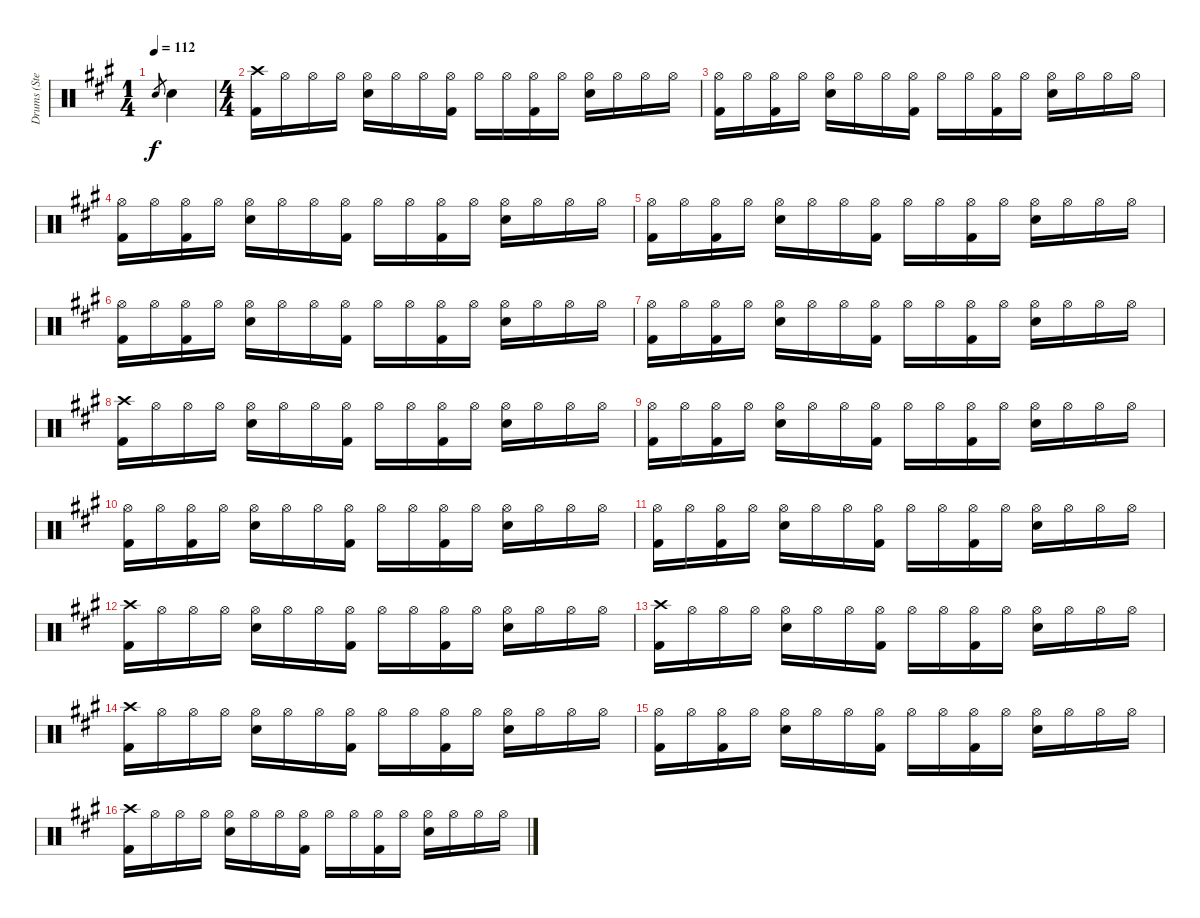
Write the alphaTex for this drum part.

\track ("Drums (Steven)" "Drums (Ste") {instrument percussion}
\staff {score}
\articulation defaults
\ts (1 4)
\tempo 112
\clef neutral
\ks f#minor "Snare (hit) 2".8{gr dy f} "Snare (hit) 2".4
|
\ts (4 4)
("Crash high (hit)" "Kick (hit) 2").16 "Hi-Hat (open)".16 "Hi-Hat (open)".16 "Hi-Hat (open)".16 ("Hi-Hat (open)" "Snare (hit) 2").16 "Hi-Hat (open)".16 "Hi-Hat (open)".16 ("Hi-Hat (open)" "Kick (hit) 2").16 "Hi-Hat (open)".16 "Hi-Hat (open)".16 ("Hi-Hat (open)" "Kick (hit) 2").16 "Hi-Hat (open)".16 ("Hi-Hat (open)" "Snare (hit) 2").16 "Hi-Hat (open)".16 "Hi-Hat (open)".16 "Hi-Hat (open)".16 |
("Hi-Hat (open)" "Kick (hit) 2").16 "Hi-Hat (open)".16 ("Hi-Hat (open)" "Kick (hit) 2").16 "Hi-Hat (open)".16 ("Hi-Hat (open)" "Snare (hit) 2").16 "Hi-Hat (open)".16 "Hi-Hat (open)".16 ("Hi-Hat (open)" "Kick (hit) 2").16 "Hi-Hat (open)".16 "Hi-Hat (open)".16 ("Hi-Hat (open)" "Kick (hit) 2").16 "Hi-Hat (open)".16 ("Hi-Hat (open)" "Snare (hit) 2").16 "Hi-Hat (open)".16 "Hi-Hat (open)".16 "Hi-Hat (open)".16 |
("Hi-Hat (open)" "Kick (hit) 2").16 "Hi-Hat (open)".16 ("Hi-Hat (open)" "Kick (hit) 2").16 "Hi-Hat (open)".16 ("Hi-Hat (open)" "Snare (hit) 2").16 "Hi-Hat (open)".16 "Hi-Hat (open)".16 ("Hi-Hat (open)" "Kick (hit) 2").16 "Hi-Hat (open)".16 "Hi-Hat (open)".16 ("Hi-Hat (open)" "Kick (hit) 2").16 "Hi-Hat (open)".16 ("Hi-Hat (open)" "Snare (hit) 2").16 "Hi-Hat (open)".16 "Hi-Hat (open)".16 "Hi-Hat (open)".16 |
("Hi-Hat (open)" "Kick (hit) 2").16 "Hi-Hat (open)".16 ("Hi-Hat (open)" "Kick (hit) 2").16 "Hi-Hat (open)".16 ("Hi-Hat (open)" "Snare (hit) 2").16 "Hi-Hat (open)".16 "Hi-Hat (open)".16 ("Hi-Hat (open)" "Kick (hit) 2").16 "Hi-Hat (open)".16 "Hi-Hat (open)".16 ("Hi-Hat (open)" "Kick (hit) 2").16 "Hi-Hat (open)".16 ("Hi-Hat (open)" "Snare (hit) 2").16 "Hi-Hat (open)".16 "Hi-Hat (open)".16 "Hi-Hat (open)".16 |
("Hi-Hat (open)" "Kick (hit) 2").16 "Hi-Hat (open)".16 ("Hi-Hat (open)" "Kick (hit) 2").16 "Hi-Hat (open)".16 ("Hi-Hat (open)" "Snare (hit) 2").16 "Hi-Hat (open)".16 "Hi-Hat (open)".16 ("Hi-Hat (open)" "Kick (hit) 2").16 "Hi-Hat (open)".16 "Hi-Hat (open)".16 ("Hi-Hat (open)" "Kick (hit) 2").16 "Hi-Hat (open)".16 ("Hi-Hat (open)" "Snare (hit) 2").16 "Hi-Hat (open)".16 "Hi-Hat (open)".16 "Hi-Hat (open)".16 |
("Hi-Hat (open)" "Kick (hit) 2").16 "Hi-Hat (open)".16 ("Hi-Hat (open)" "Kick (hit) 2").16 "Hi-Hat (open)".16 ("Hi-Hat (open)" "Snare (hit) 2").16 "Hi-Hat (open)".16 "Hi-Hat (open)".16 ("Hi-Hat (open)" "Kick (hit) 2").16 "Hi-Hat (open)".16 "Hi-Hat (open)".16 ("Hi-Hat (open)" "Kick (hit) 2").16 "Hi-Hat (open)".16 ("Hi-Hat (open)" "Snare (hit) 2").16 "Hi-Hat (open)".16 "Hi-Hat (open)".16 "Hi-Hat (open)".16 |
("Crash high (hit)" "Kick (hit) 2").16 "Hi-Hat (open)".16 "Hi-Hat (open)".16 "Hi-Hat (open)".16 ("Hi-Hat (open)" "Snare (hit) 2").16 "Hi-Hat (open)".16 "Hi-Hat (open)".16 ("Hi-Hat (open)" "Kick (hit) 2").16 "Hi-Hat (open)".16 "Hi-Hat (open)".16 ("Hi-Hat (open)" "Kick (hit) 2").16 "Hi-Hat (open)".16 ("Hi-Hat (open)" "Snare (hit) 2").16 "Hi-Hat (open)".16 "Hi-Hat (open)".16 "Hi-Hat (open)".16 |
("Hi-Hat (open)" "Kick (hit) 2").16 "Hi-Hat (open)".16 ("Hi-Hat (open)" "Kick (hit) 2").16 "Hi-Hat (open)".16 ("Hi-Hat (open)" "Snare (hit) 2").16 "Hi-Hat (open)".16 "Hi-Hat (open)".16 ("Hi-Hat (open)" "Kick (hit) 2").16 "Hi-Hat (open)".16 "Hi-Hat (open)".16 ("Hi-Hat (open)" "Kick (hit) 2").16 "Hi-Hat (open)".16 ("Hi-Hat (open)" "Snare (hit) 2").16 "Hi-Hat (open)".16 "Hi-Hat (open)".16 "Hi-Hat (open)".16 |
("Hi-Hat (open)" "Kick (hit) 2").16 "Hi-Hat (open)".16 ("Hi-Hat (open)" "Kick (hit) 2").16 "Hi-Hat (open)".16 ("Hi-Hat (open)" "Snare (hit) 2").16 "Hi-Hat (open)".16 "Hi-Hat (open)".16 ("Hi-Hat (open)" "Kick (hit) 2").16 "Hi-Hat (open)".16 "Hi-Hat (open)".16 ("Hi-Hat (open)" "Kick (hit) 2").16 "Hi-Hat (open)".16 ("Hi-Hat (open)" "Snare (hit) 2").16 "Hi-Hat (open)".16 "Hi-Hat (open)".16 "Hi-Hat (open)".16 |
("Hi-Hat (open)" "Kick (hit) 2").16 "Hi-Hat (open)".16 ("Hi-Hat (open)" "Kick (hit) 2").16 "Hi-Hat (open)".16 ("Hi-Hat (open)" "Snare (hit) 2").16 "Hi-Hat (open)".16 "Hi-Hat (open)".16 ("Hi-Hat (open)" "Kick (hit) 2").16 "Hi-Hat (open)".16 "Hi-Hat (open)".16 ("Hi-Hat (open)" "Kick (hit) 2").16 "Hi-Hat (open)".16 ("Hi-Hat (open)" "Snare (hit) 2").16 "Hi-Hat (open)".16 "Hi-Hat (open)".16 "Hi-Hat (open)".16 |
("Crash high (hit)" "Kick (hit) 2").16 "Hi-Hat (open)".16 "Hi-Hat (open)".16 "Hi-Hat (open)".16 ("Hi-Hat (open)" "Snare (hit) 2").16 "Hi-Hat (open)".16 "Hi-Hat (open)".16 ("Hi-Hat (open)" "Kick (hit) 2").16 "Hi-Hat (open)".16 "Hi-Hat (open)".16 ("Hi-Hat (open)" "Kick (hit) 2").16 "Hi-Hat (open)".16 ("Hi-Hat (open)" "Snare (hit) 2").16 "Hi-Hat (open)".16 "Hi-Hat (open)".16 "Hi-Hat (open)".16 |
("Crash high (hit)" "Kick (hit) 2").16 "Hi-Hat (open)".16 "Hi-Hat (open)".16 "Hi-Hat (open)".16 ("Hi-Hat (open)" "Snare (hit) 2").16 "Hi-Hat (open)".16 "Hi-Hat (open)".16 ("Hi-Hat (open)" "Kick (hit) 2").16 "Hi-Hat (open)".16 "Hi-Hat (open)".16 ("Hi-Hat (open)" "Kick (hit) 2").16 "Hi-Hat (open)".16 ("Hi-Hat (open)" "Snare (hit) 2").16 "Hi-Hat (open)".16 "Hi-Hat (open)".16 "Hi-Hat (open)".16 |
("Crash high (hit)" "Kick (hit) 2").16 "Hi-Hat (open)".16 "Hi-Hat (open)".16 "Hi-Hat (open)".16 ("Hi-Hat (open)" "Snare (hit) 2").16 "Hi-Hat (open)".16 "Hi-Hat (open)".16 ("Hi-Hat (open)" "Kick (hit) 2").16 "Hi-Hat (open)".16 "Hi-Hat (open)".16 ("Hi-Hat (open)" "Kick (hit) 2").16 "Hi-Hat (open)".16 ("Hi-Hat (open)" "Snare (hit) 2").16 "Hi-Hat (open)".16 "Hi-Hat (open)".16 "Hi-Hat (open)".16 |
("Hi-Hat (open)" "Kick (hit) 2").16 "Hi-Hat (open)".16 ("Hi-Hat (open)" "Kick (hit) 2").16 "Hi-Hat (open)".16 ("Hi-Hat (open)" "Snare (hit) 2").16 "Hi-Hat (open)".16 "Hi-Hat (open)".16 ("Hi-Hat (open)" "Kick (hit) 2").16 "Hi-Hat (open)".16 "Hi-Hat (open)".16 ("Hi-Hat (open)" "Kick (hit) 2").16 "Hi-Hat (open)".16 ("Hi-Hat (open)" "Snare (hit) 2").16 "Hi-Hat (open)".16 "Hi-Hat (open)".16 "Hi-Hat (open)".16 |
("Crash high (hit)" "Kick (hit) 2").16 "Hi-Hat (open)".16 "Hi-Hat (open)".16 "Hi-Hat (open)".16 ("Hi-Hat (open)" "Snare (hit) 2").16 "Hi-Hat (open)".16 "Hi-Hat (open)".16 ("Hi-Hat (open)" "Kick (hit) 2").16 "Hi-Hat (open)".16 "Hi-Hat (open)".16 ("Hi-Hat (open)" "Kick (hit) 2").16 "Hi-Hat (open)".16 ("Hi-Hat (open)" "Snare (hit) 2").16 "Hi-Hat (open)".16 "Hi-Hat (open)".16 "Hi-Hat (open)".16
